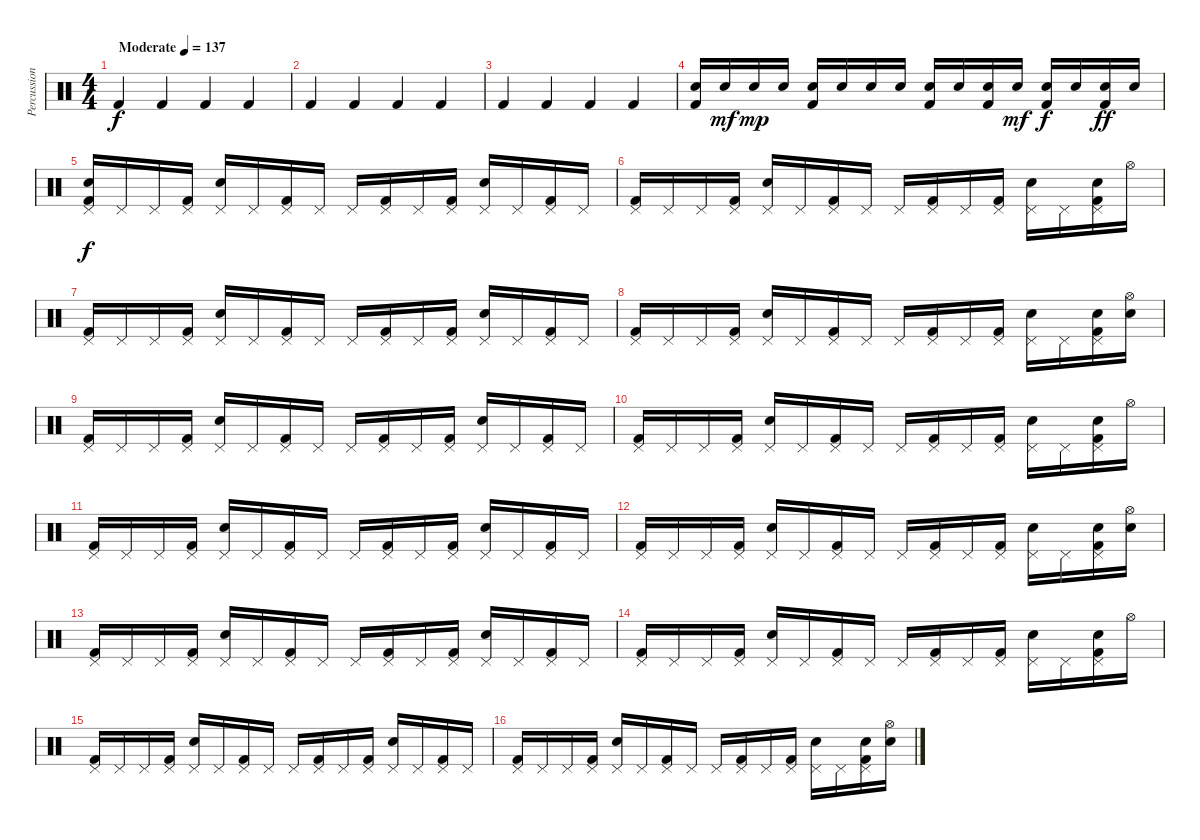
\track ("Percussion" "Percussion") {instrument percussion}
\staff {score}
\articulation defaults
\ts (4 4)
\tempo (137 "Moderate")
\clef neutral
\ks c "Kick (hit) 2".4{dy f} "Kick (hit) 2".4 "Kick (hit) 2".4 "Kick (hit) 2".4
|
"Kick (hit) 2".4 "Kick (hit) 2".4 "Kick (hit) 2".4 "Kick (hit) 2".4 |
"Kick (hit) 2".4 "Kick (hit) 2".4 "Kick (hit) 2".4 "Kick (hit) 2".4 |
("Snare (hit) 2" "Kick (hit) 2").16 "Snare (hit) 2".16{dy mf} "Snare (hit) 2".16{dy mp} "Snare (hit) 2".16 ("Snare (hit) 2" "Kick (hit) 2").16 "Snare (hit) 2".16 "Snare (hit) 2".16 "Snare (hit) 2".16 ("Snare (hit) 2" "Kick (hit) 2").16 "Snare (hit) 2".16 ("Snare (hit) 2" "Kick (hit) 2").16 "Snare (hit) 2".16{dy mf} ("Snare (hit) 2" "Kick (hit) 2").16{dy f} "Snare (hit) 2".16 ("Snare (hit) 2" "Kick (hit) 2").16{dy ff} "Snare (hit) 2".16 |
("Pedal Hi-Hat (hit)" "Snare (hit) 2" "Kick (hit) 2").16{dy f} "Pedal Hi-Hat (hit)".16 "Pedal Hi-Hat (hit)".16 ("Pedal Hi-Hat (hit)" "Kick (hit) 2").16 ("Pedal Hi-Hat (hit)" "Snare (hit) 2").16 "Pedal Hi-Hat (hit)".16 ("Pedal Hi-Hat (hit)" "Kick (hit) 2").16 "Pedal Hi-Hat (hit)".16 "Pedal Hi-Hat (hit)".16 ("Pedal Hi-Hat (hit)" "Kick (hit) 2").16 "Pedal Hi-Hat (hit)".16 ("Pedal Hi-Hat (hit)" "Kick (hit) 2").16 ("Pedal Hi-Hat (hit)" "Snare (hit) 2").16 "Pedal Hi-Hat (hit)".16 ("Pedal Hi-Hat (hit)" "Kick (hit) 2").16 "Pedal Hi-Hat (hit)".16 |
("Pedal Hi-Hat (hit)" "Kick (hit) 2").16 "Pedal Hi-Hat (hit)".16 "Pedal Hi-Hat (hit)".16 ("Pedal Hi-Hat (hit)" "Kick (hit) 2").16 ("Pedal Hi-Hat (hit)" "Snare (hit) 2").16 "Pedal Hi-Hat (hit)".16 ("Pedal Hi-Hat (hit)" "Kick (hit) 2").16 "Pedal Hi-Hat (hit)".16 "Pedal Hi-Hat (hit)".16 ("Pedal Hi-Hat (hit)" "Kick (hit) 2").16 "Pedal Hi-Hat (hit)".16 ("Pedal Hi-Hat (hit)" "Kick (hit) 2").16 ("Pedal Hi-Hat (hit)" "Snare (hit) 2").16 "Pedal Hi-Hat (hit)".16 ("Pedal Hi-Hat (hit)" "Snare (hit) 2" "Kick (hit) 2").16 "Hi-Hat (open)".16 |
("Pedal Hi-Hat (hit)" "Kick (hit) 2").16 "Pedal Hi-Hat (hit)".16 "Pedal Hi-Hat (hit)".16 ("Pedal Hi-Hat (hit)" "Kick (hit) 2").16 ("Pedal Hi-Hat (hit)" "Snare (hit) 2").16 "Pedal Hi-Hat (hit)".16 ("Pedal Hi-Hat (hit)" "Kick (hit) 2").16 "Pedal Hi-Hat (hit)".16 "Pedal Hi-Hat (hit)".16 ("Pedal Hi-Hat (hit)" "Kick (hit) 2").16 "Pedal Hi-Hat (hit)".16 ("Pedal Hi-Hat (hit)" "Kick (hit) 2").16 ("Pedal Hi-Hat (hit)" "Snare (hit) 2").16 "Pedal Hi-Hat (hit)".16 ("Pedal Hi-Hat (hit)" "Kick (hit) 2").16 "Pedal Hi-Hat (hit)".16 |
("Pedal Hi-Hat (hit)" "Kick (hit) 2").16 "Pedal Hi-Hat (hit)".16 "Pedal Hi-Hat (hit)".16 ("Pedal Hi-Hat (hit)" "Kick (hit) 2").16 ("Pedal Hi-Hat (hit)" "Snare (hit) 2").16 "Pedal Hi-Hat (hit)".16 ("Pedal Hi-Hat (hit)" "Kick (hit) 2").16 "Pedal Hi-Hat (hit)".16 "Pedal Hi-Hat (hit)".16 ("Pedal Hi-Hat (hit)" "Kick (hit) 2").16 "Pedal Hi-Hat (hit)".16 ("Pedal Hi-Hat (hit)" "Kick (hit) 2").16 ("Pedal Hi-Hat (hit)" "Snare (hit) 2").16 "Pedal Hi-Hat (hit)".16 ("Pedal Hi-Hat (hit)" "Snare (hit) 2" "Kick (hit) 2").16 ("Hi-Hat (open)" "Snare (hit) 2").16 |
("Pedal Hi-Hat (hit)" "Kick (hit) 2").16 "Pedal Hi-Hat (hit)".16 "Pedal Hi-Hat (hit)".16 ("Pedal Hi-Hat (hit)" "Kick (hit) 2").16 ("Pedal Hi-Hat (hit)" "Snare (hit) 2").16 "Pedal Hi-Hat (hit)".16 ("Pedal Hi-Hat (hit)" "Kick (hit) 2").16 "Pedal Hi-Hat (hit)".16 "Pedal Hi-Hat (hit)".16 ("Pedal Hi-Hat (hit)" "Kick (hit) 2").16 "Pedal Hi-Hat (hit)".16 ("Pedal Hi-Hat (hit)" "Kick (hit) 2").16 ("Pedal Hi-Hat (hit)" "Snare (hit) 2").16 "Pedal Hi-Hat (hit)".16 ("Pedal Hi-Hat (hit)" "Kick (hit) 2").16 "Pedal Hi-Hat (hit)".16 |
("Pedal Hi-Hat (hit)" "Kick (hit) 2").16 "Pedal Hi-Hat (hit)".16 "Pedal Hi-Hat (hit)".16 ("Pedal Hi-Hat (hit)" "Kick (hit) 2").16 ("Pedal Hi-Hat (hit)" "Snare (hit) 2").16 "Pedal Hi-Hat (hit)".16 ("Pedal Hi-Hat (hit)" "Kick (hit) 2").16 "Pedal Hi-Hat (hit)".16 "Pedal Hi-Hat (hit)".16 ("Pedal Hi-Hat (hit)" "Kick (hit) 2").16 "Pedal Hi-Hat (hit)".16 ("Pedal Hi-Hat (hit)" "Kick (hit) 2").16 ("Pedal Hi-Hat (hit)" "Snare (hit) 2").16 "Pedal Hi-Hat (hit)".16 ("Pedal Hi-Hat (hit)" "Snare (hit) 2" "Kick (hit) 2").16 "Hi-Hat (open)".16 |
("Pedal Hi-Hat (hit)" "Kick (hit) 2").16 "Pedal Hi-Hat (hit)".16 "Pedal Hi-Hat (hit)".16 ("Pedal Hi-Hat (hit)" "Kick (hit) 2").16 ("Pedal Hi-Hat (hit)" "Snare (hit) 2").16 "Pedal Hi-Hat (hit)".16 ("Pedal Hi-Hat (hit)" "Kick (hit) 2").16 "Pedal Hi-Hat (hit)".16 "Pedal Hi-Hat (hit)".16 ("Pedal Hi-Hat (hit)" "Kick (hit) 2").16 "Pedal Hi-Hat (hit)".16 ("Pedal Hi-Hat (hit)" "Kick (hit) 2").16 ("Pedal Hi-Hat (hit)" "Snare (hit) 2").16 "Pedal Hi-Hat (hit)".16 ("Pedal Hi-Hat (hit)" "Kick (hit) 2").16 "Pedal Hi-Hat (hit)".16 |
("Pedal Hi-Hat (hit)" "Kick (hit) 2").16 "Pedal Hi-Hat (hit)".16 "Pedal Hi-Hat (hit)".16 ("Pedal Hi-Hat (hit)" "Kick (hit) 2").16 ("Pedal Hi-Hat (hit)" "Snare (hit) 2").16 "Pedal Hi-Hat (hit)".16 ("Pedal Hi-Hat (hit)" "Kick (hit) 2").16 "Pedal Hi-Hat (hit)".16 "Pedal Hi-Hat (hit)".16 ("Pedal Hi-Hat (hit)" "Kick (hit) 2").16 "Pedal Hi-Hat (hit)".16 ("Pedal Hi-Hat (hit)" "Kick (hit) 2").16 ("Pedal Hi-Hat (hit)" "Snare (hit) 2").16 "Pedal Hi-Hat (hit)".16 ("Pedal Hi-Hat (hit)" "Snare (hit) 2" "Kick (hit) 2").16 ("Hi-Hat (open)" "Snare (hit) 2").16 |
("Pedal Hi-Hat (hit)" "Kick (hit) 2").16 "Pedal Hi-Hat (hit)".16 "Pedal Hi-Hat (hit)".16 ("Pedal Hi-Hat (hit)" "Kick (hit) 2").16 ("Pedal Hi-Hat (hit)" "Snare (hit) 2").16 "Pedal Hi-Hat (hit)".16 ("Pedal Hi-Hat (hit)" "Kick (hit) 2").16 "Pedal Hi-Hat (hit)".16 "Pedal Hi-Hat (hit)".16 ("Pedal Hi-Hat (hit)" "Kick (hit) 2").16 "Pedal Hi-Hat (hit)".16 ("Pedal Hi-Hat (hit)" "Kick (hit) 2").16 ("Pedal Hi-Hat (hit)" "Snare (hit) 2").16 "Pedal Hi-Hat (hit)".16 ("Pedal Hi-Hat (hit)" "Kick (hit) 2").16 "Pedal Hi-Hat (hit)".16 |
("Pedal Hi-Hat (hit)" "Kick (hit) 2").16 "Pedal Hi-Hat (hit)".16 "Pedal Hi-Hat (hit)".16 ("Pedal Hi-Hat (hit)" "Kick (hit) 2").16 ("Pedal Hi-Hat (hit)" "Snare (hit) 2").16 "Pedal Hi-Hat (hit)".16 ("Pedal Hi-Hat (hit)" "Kick (hit) 2").16 "Pedal Hi-Hat (hit)".16 "Pedal Hi-Hat (hit)".16 ("Pedal Hi-Hat (hit)" "Kick (hit) 2").16 "Pedal Hi-Hat (hit)".16 ("Pedal Hi-Hat (hit)" "Kick (hit) 2").16 ("Pedal Hi-Hat (hit)" "Snare (hit) 2").16 "Pedal Hi-Hat (hit)".16 ("Pedal Hi-Hat (hit)" "Snare (hit) 2" "Kick (hit) 2").16 "Hi-Hat (open)".16 |
("Pedal Hi-Hat (hit)" "Kick (hit) 2").16 "Pedal Hi-Hat (hit)".16 "Pedal Hi-Hat (hit)".16 ("Pedal Hi-Hat (hit)" "Kick (hit) 2").16 ("Pedal Hi-Hat (hit)" "Snare (hit) 2").16 "Pedal Hi-Hat (hit)".16 ("Pedal Hi-Hat (hit)" "Kick (hit) 2").16 "Pedal Hi-Hat (hit)".16 "Pedal Hi-Hat (hit)".16 ("Pedal Hi-Hat (hit)" "Kick (hit) 2").16 "Pedal Hi-Hat (hit)".16 ("Pedal Hi-Hat (hit)" "Kick (hit) 2").16 ("Pedal Hi-Hat (hit)" "Snare (hit) 2").16 "Pedal Hi-Hat (hit)".16 ("Pedal Hi-Hat (hit)" "Kick (hit) 2").16 "Pedal Hi-Hat (hit)".16 |
("Pedal Hi-Hat (hit)" "Kick (hit) 2").16 "Pedal Hi-Hat (hit)".16 "Pedal Hi-Hat (hit)".16 ("Pedal Hi-Hat (hit)" "Kick (hit) 2").16 ("Pedal Hi-Hat (hit)" "Snare (hit) 2").16 "Pedal Hi-Hat (hit)".16 ("Pedal Hi-Hat (hit)" "Kick (hit) 2").16 "Pedal Hi-Hat (hit)".16 "Pedal Hi-Hat (hit)".16 ("Pedal Hi-Hat (hit)" "Kick (hit) 2").16 "Pedal Hi-Hat (hit)".16 ("Pedal Hi-Hat (hit)" "Kick (hit) 2").16 ("Pedal Hi-Hat (hit)" "Snare (hit) 2").16 "Pedal Hi-Hat (hit)".16 ("Pedal Hi-Hat (hit)" "Snare (hit) 2" "Kick (hit) 2").16 ("Hi-Hat (open)" "Snare (hit) 2").16
